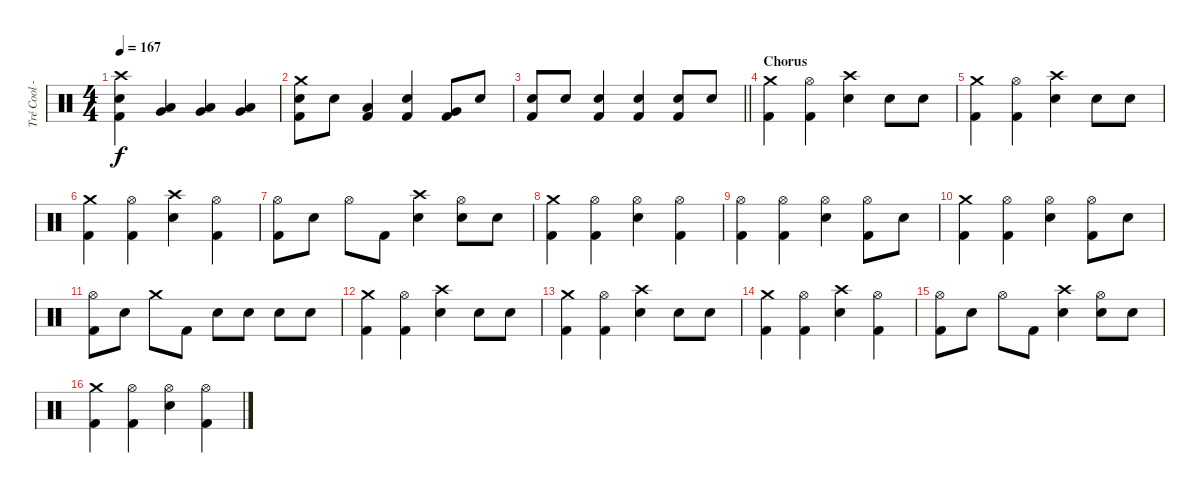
\track ("Tré Cool - Drums" "Tré Cool -") {instrument percussion}
\staff {score}
\articulation defaults
\ts (4 4)
\tempo 167
\clef neutral
\ks c
("Crash high (hit)" "Electric Snare (hit)" "Kick (hit) 2").4{dy f} ("Very Low Tom (hit)" "Low Floor Tom (hit)").4 ("Very Low Tom (hit)" "Low Floor Tom (hit)").4 ("Very Low Tom (hit)" "Low Floor Tom (hit)").4 |
("Crash medium (hit)" "Electric Snare (hit)" "Kick (hit) 2").8 "Electric Snare (hit)".8 ("Low Floor Tom (hit)" "Kick (hit) 2").4 ("Electric Snare (hit)" "Kick (hit) 2").4 ("Very Low Tom (hit)" "Kick (hit) 2").8 "Electric Snare (hit)".8 |
\barLineRight lightlight
("Electric Snare (hit)" "Kick (hit) 2").8 "Electric Snare (hit)".8 ("Electric Snare (hit)" "Kick (hit) 2").4 ("Electric Snare (hit)" "Kick (hit) 2").4 ("Electric Snare (hit)" "Kick (hit) 2").8 "Electric Snare (hit)".8 |
\section ("" "Chorus")
("Crash medium (hit)" "Kick (hit) 2").4 ("Hi-Hat (open)" "Kick (hit) 2").4 ("Crash high (hit)" "Electric Snare (hit)").4 "Electric Snare (hit)".8 "Electric Snare (hit)".8 |
("Crash medium (hit)" "Kick (hit) 2").4 ("Hi-Hat (open)" "Kick (hit) 2").4 ("Crash high (hit)" "Electric Snare (hit)").4 "Electric Snare (hit)".8 "Electric Snare (hit)".8 |
("Crash medium (hit)" "Kick (hit) 2").4 ("Hi-Hat (open)" "Kick (hit) 2").4 ("Crash high (hit)" "Electric Snare (hit)").4 ("Hi-Hat (open)" "Kick (hit) 2").4 |
("Hi-Hat (open)" "Kick (hit) 2").8 "Electric Snare (hit)".8 "Hi-Hat (open)".8 "Kick (hit) 2".8 ("Crash high (hit)" "Electric Snare (hit)").4 ("Hi-Hat (open)" "Electric Snare (hit)").8 "Electric Snare (hit)".8 |
("Crash medium (hit)" "Kick (hit) 2").4 ("Hi-Hat (open)" "Kick (hit) 2").4 ("Hi-Hat (open)" "Electric Snare (hit)").4 ("Hi-Hat (open)" "Kick (hit) 2").4 |
("Hi-Hat (open)" "Kick (hit) 2").4 ("Hi-Hat (open)" "Kick (hit) 2").4 ("Hi-Hat (open)" "Electric Snare (hit)").4 ("Hi-Hat (open)" "Kick (hit) 2").8 "Electric Snare (hit)".8 |
("Crash medium (hit)" "Kick (hit) 2").4 ("Hi-Hat (open)" "Kick (hit) 2").4 ("Hi-Hat (open)" "Electric Snare (hit)").4 ("Hi-Hat (open)" "Kick (hit) 2").8 "Electric Snare (hit)".8 |
("Hi-Hat (open)" "Kick (hit) 2").8 "Electric Snare (hit)".8 "Crash medium (hit)".8 "Kick (hit) 2".8 "Electric Snare (hit)".8 "Electric Snare (hit)".8 "Electric Snare (hit)".8 "Electric Snare (hit)".8 |
("Crash medium (hit)" "Kick (hit) 2").4 ("Hi-Hat (open)" "Kick (hit) 2").4 ("Crash high (hit)" "Electric Snare (hit)").4 "Electric Snare (hit)".8 "Electric Snare (hit)".8 |
("Crash medium (hit)" "Kick (hit) 2").4 ("Hi-Hat (open)" "Kick (hit) 2").4 ("Crash high (hit)" "Electric Snare (hit)").4 "Electric Snare (hit)".8 "Electric Snare (hit)".8 |
("Crash medium (hit)" "Kick (hit) 2").4 ("Hi-Hat (open)" "Kick (hit) 2").4 ("Crash high (hit)" "Electric Snare (hit)").4 ("Hi-Hat (open)" "Kick (hit) 2").4 |
("Hi-Hat (open)" "Kick (hit) 2").8 "Electric Snare (hit)".8 "Hi-Hat (open)".8 "Kick (hit) 2".8 ("Crash high (hit)" "Electric Snare (hit)").4 ("Hi-Hat (open)" "Electric Snare (hit)").8 "Electric Snare (hit)".8 |
("Crash medium (hit)" "Kick (hit) 2").4 ("Hi-Hat (open)" "Kick (hit) 2").4 ("Hi-Hat (open)" "Electric Snare (hit)").4 ("Hi-Hat (open)" "Kick (hit) 2").4
